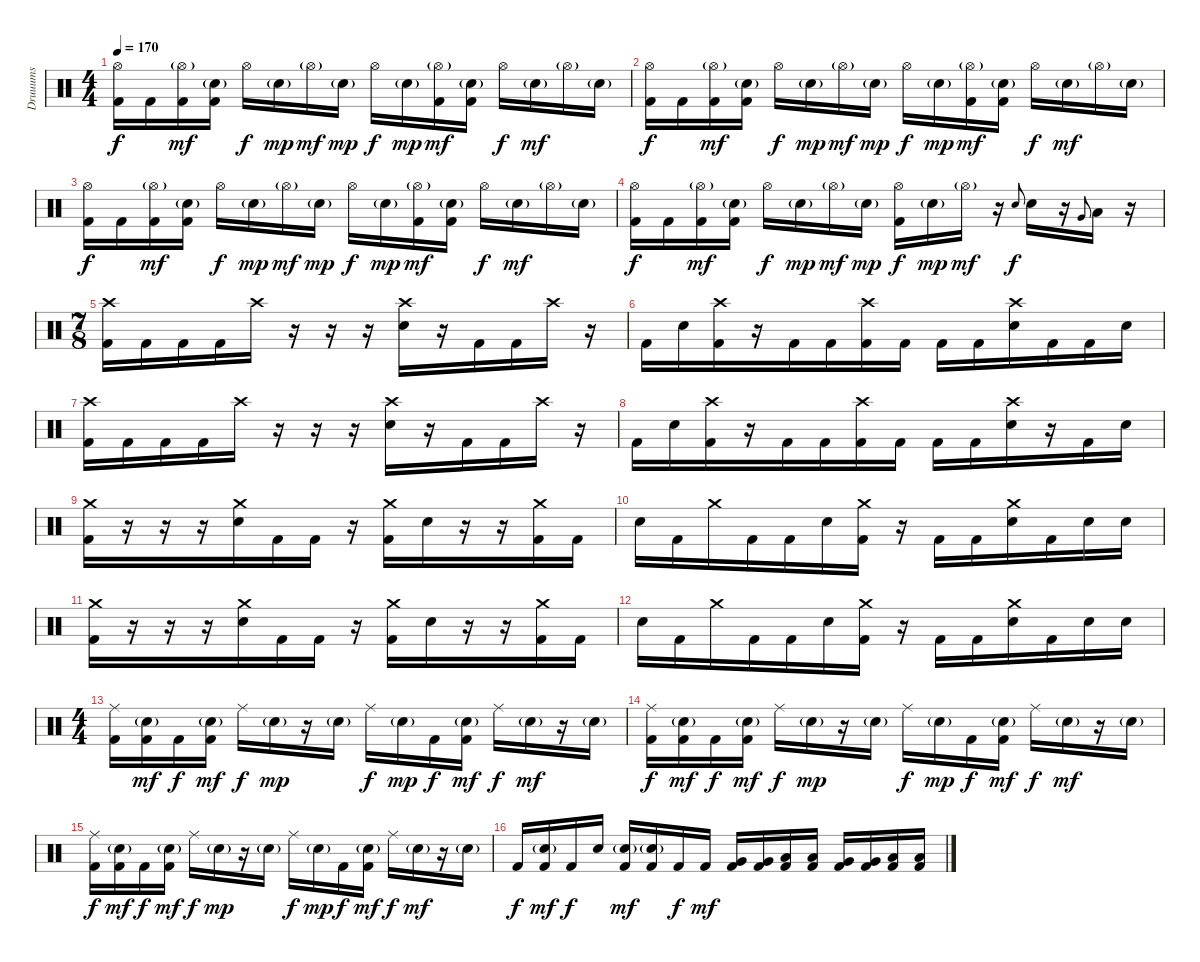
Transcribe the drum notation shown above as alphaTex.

\track ("Druuums" "Druuums") {instrument percussion}
\staff {score}
\articulation defaults
\ts (4 4)
\tempo 170
\clef neutral
\ks c
("Hi-Hat (open)" "Kick (hit) 2").16{dy f} "Kick (hit) 2".16 ("Hi-Hat (open)"{g} "Kick (hit) 2").16{dy mf} ("Electric Snare (hit)"{g} "Kick (hit) 2").16 "Hi-Hat (open)".16{dy f} "Electric Snare (hit)"{g}.16{dy mp} "Hi-Hat (open)"{g}.16{dy mf} "Electric Snare (hit)"{g}.16{dy mp} "Hi-Hat (open)".16{dy f} "Electric Snare (hit)"{g}.16{dy mp} ("Hi-Hat (open)"{g} "Kick (hit) 2").16{dy mf} ("Electric Snare (hit)"{g} "Kick (hit) 2").16 "Hi-Hat (open)".16{dy f} "Electric Snare (hit)"{g}.16{dy mf} "Hi-Hat (open)"{g}.16 "Electric Snare (hit)"{g}.16 |
("Hi-Hat (open)" "Kick (hit) 2").16{dy f} "Kick (hit) 2".16 ("Hi-Hat (open)"{g} "Kick (hit) 2").16{dy mf} ("Electric Snare (hit)"{g} "Kick (hit) 2").16 "Hi-Hat (open)".16{dy f} "Electric Snare (hit)"{g}.16{dy mp} "Hi-Hat (open)"{g}.16{dy mf} "Electric Snare (hit)"{g}.16{dy mp} "Hi-Hat (open)".16{dy f} "Electric Snare (hit)"{g}.16{dy mp} ("Hi-Hat (open)"{g} "Kick (hit) 2").16{dy mf} ("Electric Snare (hit)"{g} "Kick (hit) 2").16 "Hi-Hat (open)".16{dy f} "Electric Snare (hit)"{g}.16{dy mf} "Hi-Hat (open)"{g}.16 "Electric Snare (hit)"{g}.16 |
("Hi-Hat (open)" "Kick (hit) 2").16{dy f} "Kick (hit) 2".16 ("Hi-Hat (open)"{g} "Kick (hit) 2").16{dy mf} ("Electric Snare (hit)"{g} "Kick (hit) 2").16 "Hi-Hat (open)".16{dy f} "Electric Snare (hit)"{g}.16{dy mp} "Hi-Hat (open)"{g}.16{dy mf} "Electric Snare (hit)"{g}.16{dy mp} "Hi-Hat (open)".16{dy f} "Electric Snare (hit)"{g}.16{dy mp} ("Hi-Hat (open)"{g} "Kick (hit) 2").16{dy mf} ("Electric Snare (hit)"{g} "Kick (hit) 2").16 "Hi-Hat (open)".16{dy f} "Electric Snare (hit)"{g}.16{dy mf} "Hi-Hat (open)"{g}.16 "Electric Snare (hit)"{g}.16 |
("Hi-Hat (open)" "Kick (hit) 2").16{dy f} "Kick (hit) 2".16 ("Hi-Hat (open)"{g} "Kick (hit) 2").16{dy mf} ("Electric Snare (hit)"{g} "Kick (hit) 2").16 "Hi-Hat (open)".16{dy f} "Electric Snare (hit)"{g}.16{dy mp} "Hi-Hat (open)"{g}.16{dy mf} "Electric Snare (hit)"{g}.16{dy mp} ("Hi-Hat (open)" "Kick (hit) 2").16{dy f} "Electric Snare (hit)"{g}.16{dy mp} "Hi-Hat (open)"{g}.16{dy mf} r.16 "Electric Snare (hit)".8{gr onbeat dy f} "Electric Snare (hit)".16 r.16 "Very Low Tom (hit)".8{gr onbeat} "Low Tom (hit)".16 r.16 |
\ts (7 8)
("Crash high (hit)" "Kick (hit) 2").16 "Kick (hit) 2".16 "Kick (hit) 2".16 "Kick (hit) 2".16 "Crash high (hit)".16 r.16 r.16 r.16 ("Crash high (hit)" "Electric Snare (hit)").16 r.16 "Kick (hit) 2".16 "Kick (hit) 2".16 "Crash high (hit)".16 r.16 |
"Kick (hit) 2".16 "Electric Snare (hit)".16 ("Crash high (hit)" "Kick (hit) 2").16 r.16 "Kick (hit) 2".16 "Kick (hit) 2".16 ("Crash high (hit)" "Kick (hit) 2").16 "Kick (hit) 2".16 "Kick (hit) 2".16 "Kick (hit) 2".16 ("Crash high (hit)" "Electric Snare (hit)").16 "Kick (hit) 2".16 "Kick (hit) 2".16 "Electric Snare (hit)".16 |
("Crash high (hit)" "Kick (hit) 2").16 "Kick (hit) 2".16 "Kick (hit) 2".16 "Kick (hit) 2".16 "Crash high (hit)".16 r.16 r.16 r.16 ("Crash high (hit)" "Electric Snare (hit)").16 r.16 "Kick (hit) 2".16 "Kick (hit) 2".16 "Crash high (hit)".16 r.16 |
"Kick (hit) 2".16 "Electric Snare (hit)".16 ("Crash high (hit)" "Kick (hit) 2").16 r.16 "Kick (hit) 2".16 "Kick (hit) 2".16 ("Crash high (hit)" "Kick (hit) 2").16 "Kick (hit) 2".16 "Kick (hit) 2".16 "Kick (hit) 2".16 ("Crash high (hit)" "Electric Snare (hit)").16 r.16 "Kick (hit) 2".16 "Electric Snare (hit)".16 |
("Crash medium (hit)" "Kick (hit) 2").16 r.16 r.16 r.16 ("Crash medium (hit)" "Electric Snare (hit)").16 "Kick (hit) 2".16 "Kick (hit) 2".16 r.16 ("Crash medium (hit)" "Kick (hit) 2").16 "Electric Snare (hit)".16 r.16 r.16 ("Crash medium (hit)" "Kick (hit) 2").16 "Kick (hit) 2".16 |
"Electric Snare (hit)".16 "Kick (hit) 2".16 "Crash medium (hit)".16 "Kick (hit) 2".16 "Kick (hit) 2".16 "Electric Snare (hit)".16 ("Crash medium (hit)" "Kick (hit) 2").16 r.16 "Kick (hit) 2".16 "Kick (hit) 2".16 ("Crash medium (hit)" "Electric Snare (hit)").16 "Kick (hit) 2".16 "Electric Snare (hit)".16 "Electric Snare (hit)".16 |
("Crash medium (hit)" "Kick (hit) 2").16 r.16 r.16 r.16 ("Crash medium (hit)" "Electric Snare (hit)").16 "Kick (hit) 2".16 "Kick (hit) 2".16 r.16 ("Crash medium (hit)" "Kick (hit) 2").16 "Electric Snare (hit)".16 r.16 r.16 ("Crash medium (hit)" "Kick (hit) 2").16 "Kick (hit) 2".16 |
"Electric Snare (hit)".16 "Kick (hit) 2".16 "Crash medium (hit)".16 "Kick (hit) 2".16 "Kick (hit) 2".16 "Electric Snare (hit)".16 ("Crash medium (hit)" "Kick (hit) 2").16 r.16 "Kick (hit) 2".16 "Kick (hit) 2".16 ("Crash medium (hit)" "Electric Snare (hit)").16 "Kick (hit) 2".16 "Electric Snare (hit)".16 "Electric Snare (hit)".16 |
\ts (4 4)
("Ride (middle)" "Kick (hit) 2").16 ("Electric Snare (hit)"{g} "Kick (hit) 2").16{dy mf} "Kick (hit) 2".16{dy f} ("Electric Snare (hit)"{g} "Kick (hit) 2").16{dy mf} "Ride (middle)".16{dy f} "Electric Snare (hit)"{g}.16{dy mp} r.16 "Electric Snare (hit)"{g}.16 "Ride (middle)".16{dy f} "Electric Snare (hit)"{g}.16{dy mp} "Kick (hit) 2".16{dy f} ("Electric Snare (hit)"{g} "Kick (hit) 2").16{dy mf} "Ride (middle)".16{dy f} "Electric Snare (hit)"{g}.16{dy mf} r.16 "Electric Snare (hit)"{g}.16 |
("Ride (middle)" "Kick (hit) 2").16{dy f} ("Electric Snare (hit)"{g} "Kick (hit) 2").16{dy mf} "Kick (hit) 2".16{dy f} ("Electric Snare (hit)"{g} "Kick (hit) 2").16{dy mf} "Ride (middle)".16{dy f} "Electric Snare (hit)"{g}.16{dy mp} r.16 "Electric Snare (hit)"{g}.16 "Ride (middle)".16{dy f} "Electric Snare (hit)"{g}.16{dy mp} "Kick (hit) 2".16{dy f} ("Electric Snare (hit)"{g} "Kick (hit) 2").16{dy mf} "Ride (middle)".16{dy f} "Electric Snare (hit)"{g}.16{dy mf} r.16 "Electric Snare (hit)"{g}.16 |
("Ride (middle)" "Kick (hit) 2").16{dy f} ("Electric Snare (hit)"{g} "Kick (hit) 2").16{dy mf} "Kick (hit) 2".16{dy f} ("Electric Snare (hit)"{g} "Kick (hit) 2").16{dy mf} "Ride (middle)".16{dy f} "Electric Snare (hit)"{g}.16{dy mp} r.16 "Electric Snare (hit)"{g}.16 "Ride (middle)".16{dy f} "Electric Snare (hit)"{g}.16{dy mp} "Kick (hit) 2".16{dy f} ("Electric Snare (hit)"{g} "Kick (hit) 2").16{dy mf} "Ride (middle)".16{dy f} "Electric Snare (hit)"{g}.16{dy mf} r.16 "Electric Snare (hit)"{g}.16 |
"Kick (hit) 2".16{dy f} ("Electric Snare (hit)"{g} "Kick (hit) 2").16{dy mf} "Kick (hit) 2".16{dy f} "Electric Snare (hit)".16 ("Electric Snare (hit)"{g} "Kick (hit) 2").16{dy mf} ("Electric Snare (hit)"{g} "Kick (hit) 2").16 "Kick (hit) 2".16{dy f} "Kick (hit) 2".16{dy mf} ("Very Low Tom (hit)" "Kick (hit) 2").16 ("Very Low Tom (hit)" "Kick (hit) 2").16 ("Low Floor Tom (hit)" "Kick (hit) 2").16 ("Low Floor Tom (hit)" "Kick (hit) 2").16 ("Very Low Tom (hit)" "Kick (hit) 2").16 ("Very Low Tom (hit)" "Kick (hit) 2").16 ("Low Floor Tom (hit)" "Kick (hit) 2").16 ("Low Floor Tom (hit)" "Kick (hit) 2").16
